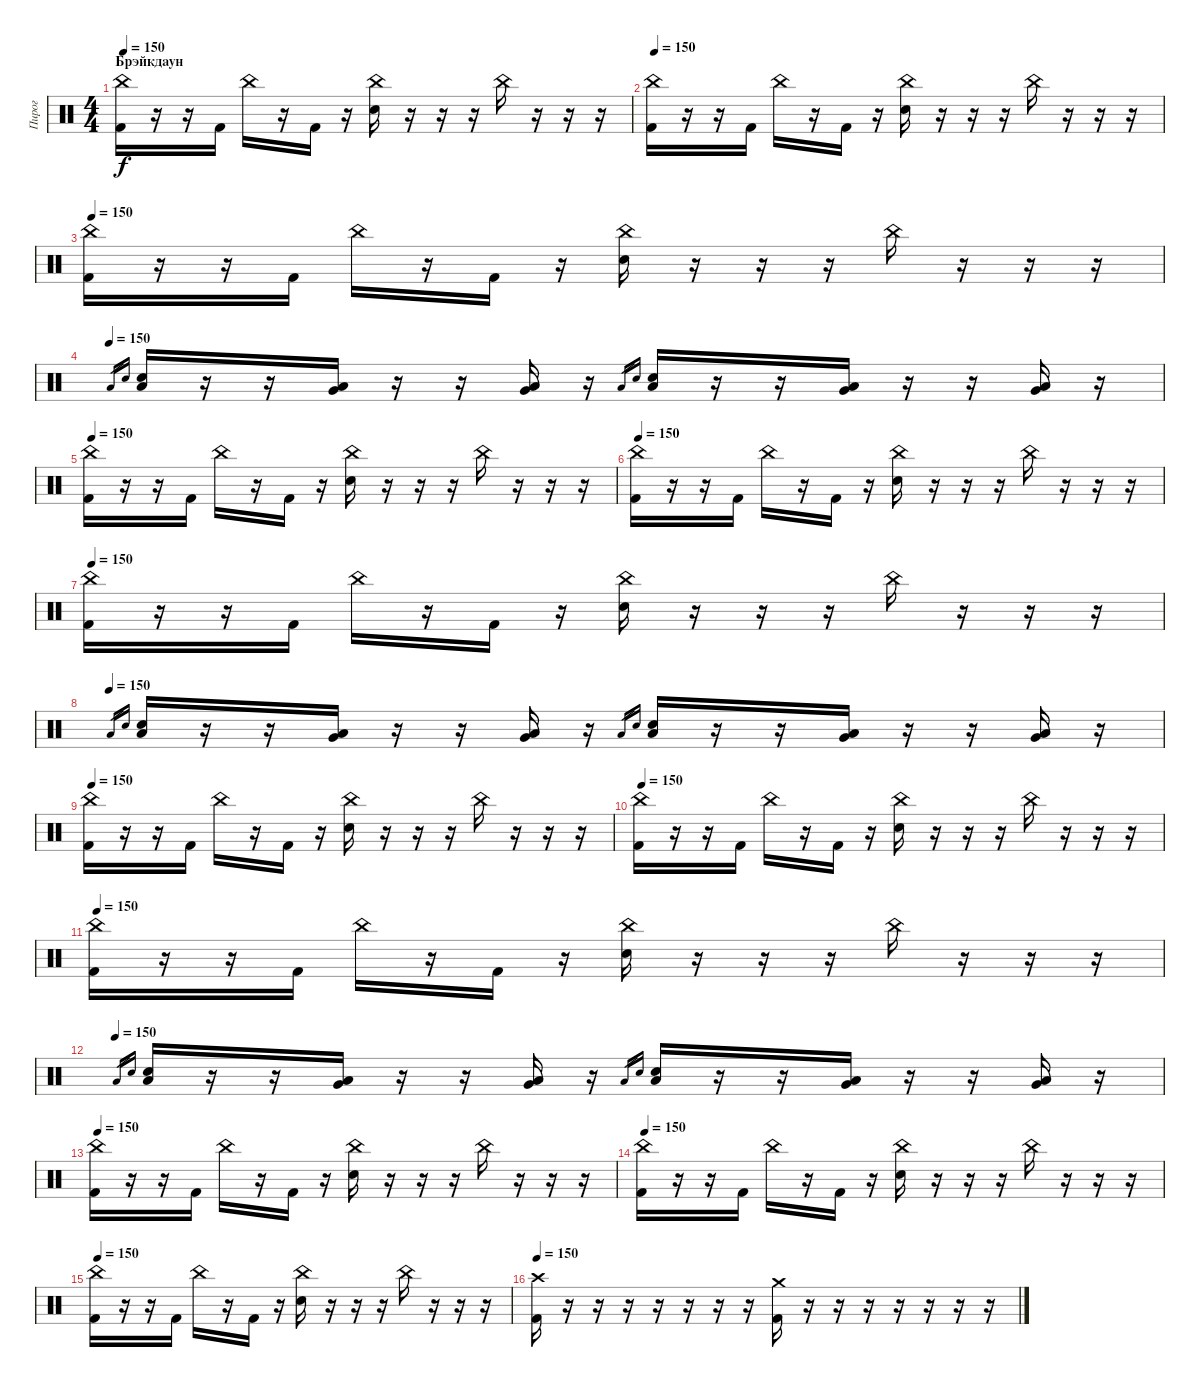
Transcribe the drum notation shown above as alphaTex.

\track ("Пирог" "Пирог") {instrument percussion}
\staff {score}
\articulation defaults
\ts (4 4)
\section ("" "Брэйкдаун")
\tempo 150
\clef neutral
\ks c
("China (hit)" "Kick (hit) 2").16{dy f} r.16 r.16 "Kick (hit) 2".16 "China (hit)".16 r.16 "Kick (hit) 2".16 r.16 ("China (hit)" "Electric Snare (hit)").16 r.16 r.16 r.16 "China (hit)".16 r.16 r.16 r.16 |
\tempo 150
("China (hit)" "Kick (hit) 2").16 r.16 r.16 "Kick (hit) 2".16 "China (hit)".16 r.16 "Kick (hit) 2".16 r.16 ("China (hit)" "Electric Snare (hit)").16 r.16 r.16 r.16 "China (hit)".16 r.16 r.16 r.16 |
\tempo 150
("China (hit)" "Kick (hit) 2").16 r.16 r.16 "Kick (hit) 2".16 "China (hit)".16 r.16 "Kick (hit) 2".16 r.16 ("China (hit)" "Electric Snare (hit)").16 r.16 r.16 r.16 "China (hit)".16 r.16 r.16 r.16 |
\tempo (150)
"Low Tom (hit)".16{gr} "Electric Snare (hit)".16{gr} ("Low Tom (hit)" "Electric Snare (hit)").16 r.16 r.16 ("Very Low Tom (hit)" "Low Floor Tom (hit)").16 r.16 r.16 ("Very Low Tom (hit)" "Low Floor Tom (hit)").16 r.16 "Low Tom (hit)".16{gr} "Electric Snare (hit)".16{gr} ("Low Tom (hit)" "Electric Snare (hit)").16 r.16 r.16 ("Very Low Tom (hit)" "Low Floor Tom (hit)").16 r.16 r.16 ("Very Low Tom (hit)" "Low Floor Tom (hit)").16 r.16 |
\tempo 150
("China (hit)" "Kick (hit) 2").16 r.16 r.16 "Kick (hit) 2".16 "China (hit)".16 r.16 "Kick (hit) 2".16 r.16 ("China (hit)" "Electric Snare (hit)").16 r.16 r.16 r.16 "China (hit)".16 r.16 r.16 r.16 |
\tempo 150
("China (hit)" "Kick (hit) 2").16 r.16 r.16 "Kick (hit) 2".16 "China (hit)".16 r.16 "Kick (hit) 2".16 r.16 ("China (hit)" "Electric Snare (hit)").16 r.16 r.16 r.16 "China (hit)".16 r.16 r.16 r.16 |
\tempo 150
("China (hit)" "Kick (hit) 2").16 r.16 r.16 "Kick (hit) 2".16 "China (hit)".16 r.16 "Kick (hit) 2".16 r.16 ("China (hit)" "Electric Snare (hit)").16 r.16 r.16 r.16 "China (hit)".16 r.16 r.16 r.16 |
\tempo (150)
"Low Tom (hit)".16{gr} "Electric Snare (hit)".16{gr} ("Low Tom (hit)" "Electric Snare (hit)").16 r.16 r.16 ("Very Low Tom (hit)" "Low Floor Tom (hit)").16 r.16 r.16 ("Very Low Tom (hit)" "Low Floor Tom (hit)").16 r.16 "Low Tom (hit)".16{gr} "Electric Snare (hit)".16{gr} ("Low Tom (hit)" "Electric Snare (hit)").16 r.16 r.16 ("Very Low Tom (hit)" "Low Floor Tom (hit)").16 r.16 r.16 ("Very Low Tom (hit)" "Low Floor Tom (hit)").16 r.16 |
\tempo 150
("China (hit)" "Kick (hit) 2").16 r.16 r.16 "Kick (hit) 2".16 "China (hit)".16 r.16 "Kick (hit) 2".16 r.16 ("China (hit)" "Electric Snare (hit)").16 r.16 r.16 r.16 "China (hit)".16 r.16 r.16 r.16 |
\tempo 150
("China (hit)" "Kick (hit) 2").16 r.16 r.16 "Kick (hit) 2".16 "China (hit)".16 r.16 "Kick (hit) 2".16 r.16 ("China (hit)" "Electric Snare (hit)").16 r.16 r.16 r.16 "China (hit)".16 r.16 r.16 r.16 |
\tempo 150
("China (hit)" "Kick (hit) 2").16 r.16 r.16 "Kick (hit) 2".16 "China (hit)".16 r.16 "Kick (hit) 2".16 r.16 ("China (hit)" "Electric Snare (hit)").16 r.16 r.16 r.16 "China (hit)".16 r.16 r.16 r.16 |
\tempo (150)
"Low Tom (hit)".16{gr} "Electric Snare (hit)".16{gr} ("Low Tom (hit)" "Electric Snare (hit)").16 r.16 r.16 ("Very Low Tom (hit)" "Low Floor Tom (hit)").16 r.16 r.16 ("Very Low Tom (hit)" "Low Floor Tom (hit)").16 r.16 "Low Tom (hit)".16{gr} "Electric Snare (hit)".16{gr} ("Low Tom (hit)" "Electric Snare (hit)").16 r.16 r.16 ("Very Low Tom (hit)" "Low Floor Tom (hit)").16 r.16 r.16 ("Very Low Tom (hit)" "Low Floor Tom (hit)").16 r.16 |
\tempo 150
("China (hit)" "Kick (hit) 2").16 r.16 r.16 "Kick (hit) 2".16 "China (hit)".16 r.16 "Kick (hit) 2".16 r.16 ("China (hit)" "Electric Snare (hit)").16 r.16 r.16 r.16 "China (hit)".16 r.16 r.16 r.16 |
\tempo 150
("China (hit)" "Kick (hit) 2").16 r.16 r.16 "Kick (hit) 2".16 "China (hit)".16 r.16 "Kick (hit) 2".16 r.16 ("China (hit)" "Electric Snare (hit)").16 r.16 r.16 r.16 "China (hit)".16 r.16 r.16 r.16 |
\tempo 150
("China (hit)" "Kick (hit) 2").16 r.16 r.16 "Kick (hit) 2".16 "China (hit)".16 r.16 "Kick (hit) 2".16 r.16 ("China (hit)" "Electric Snare (hit)").16 r.16 r.16 r.16 "China (hit)".16 r.16 r.16 r.16 |
\tempo 150
("Crash high (hit)" "Kick (hit) 2").16 r.16 r.16 r.16 r.16 r.16 r.16 r.16 ("Crash medium (hit)" "Kick (hit) 2").16 r.16 r.16 r.16 r.16 r.16 r.16 r.16
